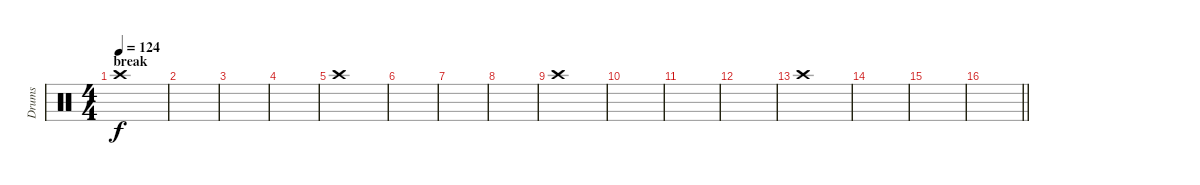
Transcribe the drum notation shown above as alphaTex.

\track ("Drums" "Drums") {instrument percussion}
\staff {score}
\articulation defaults
\ts (4 4)
\section ("" "break")
\tempo 124
\clef neutral
\ks c "Crash high (hit)".1{dy f}
|
|
|
|
"Crash high (hit)".1 |
|
|
|
"Crash high (hit)".1 |
|
|
|
"Crash high (hit)".1 |
|
|
\barLineRight lightlight
